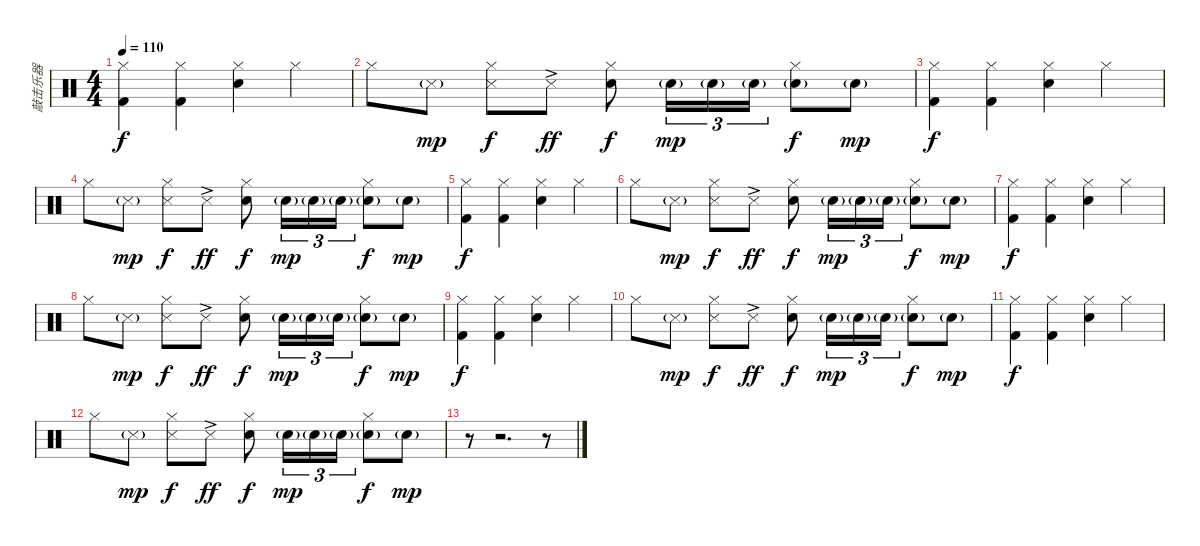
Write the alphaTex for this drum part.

\track ("敲击乐器" "敲击乐器") {instrument percussion}
\staff {score}
\articulation defaults
\ts (4 4)
\tempo 110
\clef neutral
\ks c
("Kick (hit) 2" "Hi-Hat (closed)").4{dy f} ("Kick (hit) 2" "Hi-Hat (closed)").4 ("Snare (hit) 2" "Hi-Hat (closed)").4 "Hi-Hat (closed)".4 |
"Hi-Hat (closed)".8 "Metronome (hit)"{g}.8{dy mp} ("Metronome (hit)" "Hi-Hat (closed)").8{dy f} "Metronome (hit)"{ac}.8{dy ff} ("Snare (hit) 2" "Hi-Hat (closed)").8{dy f} "Electric Snare (hit)"{g}.16{tu (3 2) dy mp} "Electric Snare (hit)"{g}.16{tu (3 2)} "Electric Snare (hit)"{g}.16{tu (3 2)} ("Electric Snare (hit)"{g} "Hi-Hat (closed)").8{dy f} "Electric Snare (hit)"{g}.8{dy mp} |
("Kick (hit) 2" "Hi-Hat (closed)").4{dy f} ("Kick (hit) 2" "Hi-Hat (closed)").4 ("Snare (hit) 2" "Hi-Hat (closed)").4 "Hi-Hat (closed)".4 |
"Hi-Hat (closed)".8 "Metronome (hit)"{g}.8{dy mp} ("Metronome (hit)" "Hi-Hat (closed)").8{dy f} "Metronome (hit)"{ac}.8{dy ff} ("Snare (hit) 2" "Hi-Hat (closed)").8{dy f} "Electric Snare (hit)"{g}.16{tu (3 2) dy mp} "Electric Snare (hit)"{g}.16{tu (3 2)} "Electric Snare (hit)"{g}.16{tu (3 2)} ("Electric Snare (hit)"{g} "Hi-Hat (closed)").8{dy f} "Electric Snare (hit)"{g}.8{dy mp} |
("Kick (hit) 2" "Hi-Hat (closed)").4{dy f} ("Kick (hit) 2" "Hi-Hat (closed)").4 ("Snare (hit) 2" "Hi-Hat (closed)").4 "Hi-Hat (closed)".4 |
"Hi-Hat (closed)".8 "Metronome (hit)"{g}.8{dy mp} ("Metronome (hit)" "Hi-Hat (closed)").8{dy f} "Metronome (hit)"{ac}.8{dy ff} ("Snare (hit) 2" "Hi-Hat (closed)").8{dy f} "Electric Snare (hit)"{g}.16{tu (3 2) dy mp} "Electric Snare (hit)"{g}.16{tu (3 2)} "Electric Snare (hit)"{g}.16{tu (3 2)} ("Electric Snare (hit)"{g} "Hi-Hat (closed)").8{dy f} "Electric Snare (hit)"{g}.8{dy mp} |
("Kick (hit) 2" "Hi-Hat (closed)").4{dy f} ("Kick (hit) 2" "Hi-Hat (closed)").4 ("Snare (hit) 2" "Hi-Hat (closed)").4 "Hi-Hat (closed)".4 |
"Hi-Hat (closed)".8 "Metronome (hit)"{g}.8{dy mp} ("Metronome (hit)" "Hi-Hat (closed)").8{dy f} "Metronome (hit)"{ac}.8{dy ff} ("Snare (hit) 2" "Hi-Hat (closed)").8{dy f} "Electric Snare (hit)"{g}.16{tu (3 2) dy mp} "Electric Snare (hit)"{g}.16{tu (3 2)} "Electric Snare (hit)"{g}.16{tu (3 2)} ("Electric Snare (hit)"{g} "Hi-Hat (closed)").8{dy f} "Electric Snare (hit)"{g}.8{dy mp} |
("Kick (hit) 2" "Hi-Hat (closed)").4{dy f} ("Kick (hit) 2" "Hi-Hat (closed)").4 ("Snare (hit) 2" "Hi-Hat (closed)").4 "Hi-Hat (closed)".4 |
"Hi-Hat (closed)".8 "Metronome (hit)"{g}.8{dy mp} ("Metronome (hit)" "Hi-Hat (closed)").8{dy f} "Metronome (hit)"{ac}.8{dy ff} ("Snare (hit) 2" "Hi-Hat (closed)").8{dy f} "Electric Snare (hit)"{g}.16{tu (3 2) dy mp} "Electric Snare (hit)"{g}.16{tu (3 2)} "Electric Snare (hit)"{g}.16{tu (3 2)} ("Electric Snare (hit)"{g} "Hi-Hat (closed)").8{dy f} "Electric Snare (hit)"{g}.8{dy mp} |
("Kick (hit) 2" "Hi-Hat (closed)").4{dy f} ("Kick (hit) 2" "Hi-Hat (closed)").4 ("Snare (hit) 2" "Hi-Hat (closed)").4 "Hi-Hat (closed)".4 |
"Hi-Hat (closed)".8 "Metronome (hit)"{g}.8{dy mp} ("Metronome (hit)" "Hi-Hat (closed)").8{dy f} "Metronome (hit)"{ac}.8{dy ff} ("Snare (hit) 2" "Hi-Hat (closed)").8{dy f} "Electric Snare (hit)"{g}.16{tu (3 2) dy mp} "Electric Snare (hit)"{g}.16{tu (3 2)} "Electric Snare (hit)"{g}.16{tu (3 2)} ("Electric Snare (hit)"{g} "Hi-Hat (closed)").8{dy f} "Electric Snare (hit)"{g}.8{dy mp} |
r.8 r.2{d} r.8
